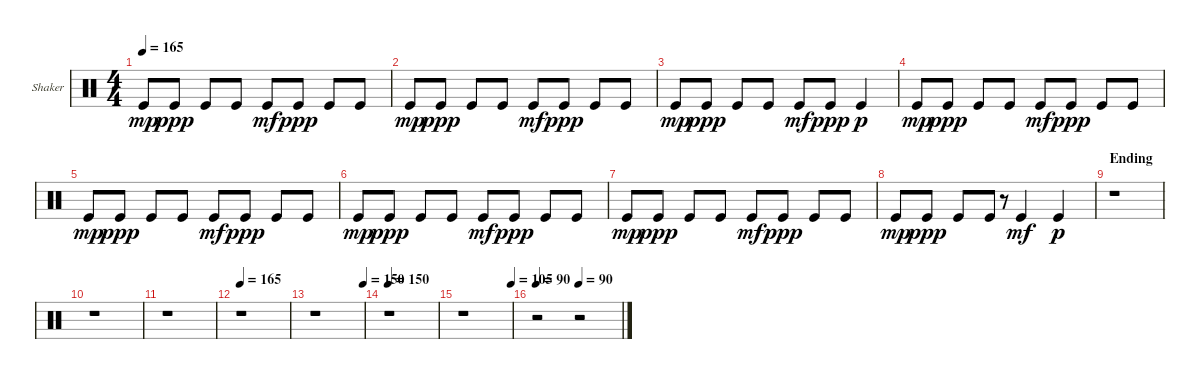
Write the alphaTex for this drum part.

\bracketExtendMode groupsimilarinstruments
\firstSystemTrackNameOrientation horizontal
\otherSystemsTrackNameOrientation horizontal
\track ("Shaker" "Shaker") {instrument percussion}
\staff {score}
\articulation defaults
\ts (4 4)
\tempo 165
\clef neutral
\ks c "Kick (hit)".8{dy mp} "Kick (hit)".8{dy ppp} "Kick (hit)".8 "Kick (hit)".8 "Kick (hit)".8{dy mf} "Kick (hit)".8{dy ppp} "Kick (hit)".8 "Kick (hit)".8
|
"Kick (hit)".8{dy mp} "Kick (hit)".8{dy ppp} "Kick (hit)".8 "Kick (hit)".8 "Kick (hit)".8{dy mf} "Kick (hit)".8{dy ppp} "Kick (hit)".8 "Kick (hit)".8 |
"Kick (hit)".8{dy mp} "Kick (hit)".8{dy ppp} "Kick (hit)".8 "Kick (hit)".8 "Kick (hit)".8{dy mf} "Kick (hit)".8{dy ppp} "Kick (hit)".4{dy p} |
"Kick (hit)".8{dy mp} "Kick (hit)".8{dy ppp} "Kick (hit)".8 "Kick (hit)".8 "Kick (hit)".8{dy mf} "Kick (hit)".8{dy ppp} "Kick (hit)".8 "Kick (hit)".8 |
"Kick (hit)".8{dy mp} "Kick (hit)".8{dy ppp} "Kick (hit)".8 "Kick (hit)".8 "Kick (hit)".8{dy mf} "Kick (hit)".8{dy ppp} "Kick (hit)".8 "Kick (hit)".8 |
"Kick (hit)".8{dy mp} "Kick (hit)".8{dy ppp} "Kick (hit)".8 "Kick (hit)".8 "Kick (hit)".8{dy mf} "Kick (hit)".8{dy ppp} "Kick (hit)".8 "Kick (hit)".8 |
"Kick (hit)".8{dy mp} "Kick (hit)".8{dy ppp} "Kick (hit)".8 "Kick (hit)".8 "Kick (hit)".8{dy mf} "Kick (hit)".8{dy ppp} "Kick (hit)".8 "Kick (hit)".8 |
"Kick (hit)".8{dy mp} "Kick (hit)".8{dy ppp} "Kick (hit)".8 "Kick (hit)".8 r.8{gr} "Kick (hit)".4{dy mf} "Kick (hit)".4{dy p} |
\section ("" "Ending")
r.1 |
r.1 |
r.1 |
\tempo 165
r.1 |
\tempo (150 1)
r.1 |
\tempo 150
r.1 |
\tempo (105 1)
r.1 |
\tempo 105
\tempo 90
\tempo (90 0.5)
r.2 r.2
